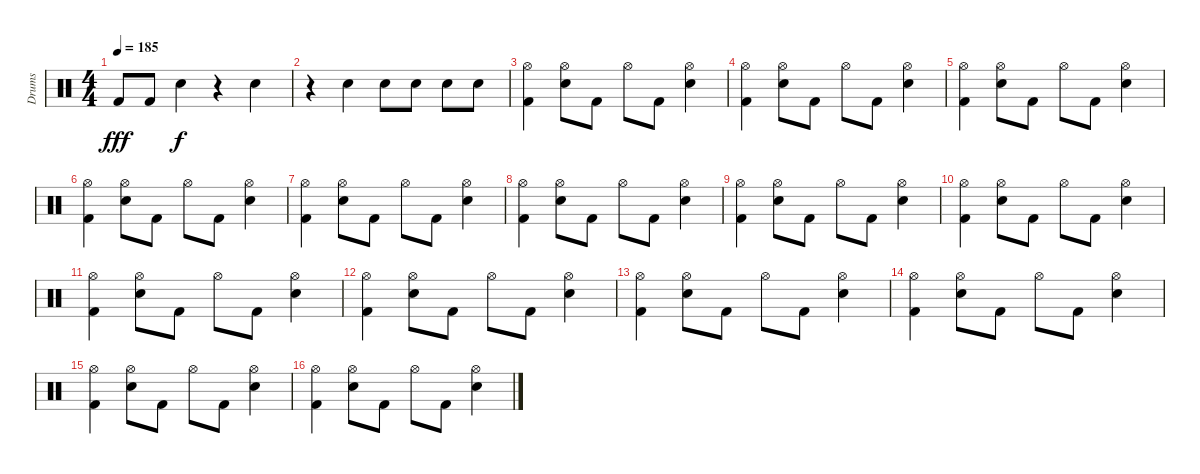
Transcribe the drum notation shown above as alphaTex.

\track ("Drums" "Drums") {instrument percussion}
\staff {score}
\articulation defaults
\ts (4 4)
\tempo 185
\clef neutral
\ks c "Kick (hit) 2".8{dy fff} "Kick (hit) 2".8 "Electric Snare (hit)".4{dy f}
r.4 "Electric Snare (hit)".4 |
r.4 "Electric Snare (hit)".4 "Electric Snare (hit)".8 "Electric Snare (hit)".8 "Electric Snare (hit)".8 "Electric Snare (hit)".8 |
("Kick (hit) 2" "Hi-Hat (open)").4 ("Electric Snare (hit)" "Hi-Hat (open)").8 "Kick (hit) 2".8 "Hi-Hat (open)".8 "Kick (hit) 2".8 ("Electric Snare (hit)" "Hi-Hat (open)").4 |
("Kick (hit) 2" "Hi-Hat (open)").4 ("Electric Snare (hit)" "Hi-Hat (open)").8 "Kick (hit) 2".8 "Hi-Hat (open)".8 "Kick (hit) 2".8 ("Electric Snare (hit)" "Hi-Hat (open)").4 |
("Kick (hit) 2" "Hi-Hat (open)").4 ("Electric Snare (hit)" "Hi-Hat (open)").8 "Kick (hit) 2".8 "Hi-Hat (open)".8 "Kick (hit) 2".8 ("Electric Snare (hit)" "Hi-Hat (open)").4 |
("Kick (hit) 2" "Hi-Hat (open)").4 ("Electric Snare (hit)" "Hi-Hat (open)").8 "Kick (hit) 2".8 "Hi-Hat (open)".8 "Kick (hit) 2".8 ("Electric Snare (hit)" "Hi-Hat (open)").4 |
("Kick (hit) 2" "Hi-Hat (open)").4 ("Electric Snare (hit)" "Hi-Hat (open)").8 "Kick (hit) 2".8 "Hi-Hat (open)".8 "Kick (hit) 2".8 ("Electric Snare (hit)" "Hi-Hat (open)").4 |
("Kick (hit) 2" "Hi-Hat (open)").4 ("Electric Snare (hit)" "Hi-Hat (open)").8 "Kick (hit) 2".8 "Hi-Hat (open)".8 "Kick (hit) 2".8 ("Electric Snare (hit)" "Hi-Hat (open)").4 |
("Kick (hit) 2" "Hi-Hat (open)").4 ("Electric Snare (hit)" "Hi-Hat (open)").8 "Kick (hit) 2".8 "Hi-Hat (open)".8 "Kick (hit) 2".8 ("Electric Snare (hit)" "Hi-Hat (open)").4 |
("Kick (hit) 2" "Hi-Hat (open)").4 ("Electric Snare (hit)" "Hi-Hat (open)").8 "Kick (hit) 2".8 "Hi-Hat (open)".8 "Kick (hit) 2".8 ("Electric Snare (hit)" "Hi-Hat (open)").4 |
("Kick (hit) 2" "Hi-Hat (open)").4 ("Electric Snare (hit)" "Hi-Hat (open)").8 "Kick (hit) 2".8 "Hi-Hat (open)".8 "Kick (hit) 2".8 ("Electric Snare (hit)" "Hi-Hat (open)").4 |
("Kick (hit) 2" "Hi-Hat (open)").4 ("Electric Snare (hit)" "Hi-Hat (open)").8 "Kick (hit) 2".8 "Hi-Hat (open)".8 "Kick (hit) 2".8 ("Electric Snare (hit)" "Hi-Hat (open)").4 |
("Kick (hit) 2" "Hi-Hat (open)").4 ("Electric Snare (hit)" "Hi-Hat (open)").8 "Kick (hit) 2".8 "Hi-Hat (open)".8 "Kick (hit) 2".8 ("Electric Snare (hit)" "Hi-Hat (open)").4 |
("Kick (hit) 2" "Hi-Hat (open)").4 ("Electric Snare (hit)" "Hi-Hat (open)").8 "Kick (hit) 2".8 "Hi-Hat (open)".8 "Kick (hit) 2".8 ("Electric Snare (hit)" "Hi-Hat (open)").4 |
("Kick (hit) 2" "Hi-Hat (open)").4 ("Electric Snare (hit)" "Hi-Hat (open)").8 "Kick (hit) 2".8 "Hi-Hat (open)".8 "Kick (hit) 2".8 ("Electric Snare (hit)" "Hi-Hat (open)").4 |
("Kick (hit) 2" "Hi-Hat (open)").4 ("Electric Snare (hit)" "Hi-Hat (open)").8 "Kick (hit) 2".8 "Hi-Hat (open)".8 "Kick (hit) 2".8 ("Electric Snare (hit)" "Hi-Hat (open)").4
